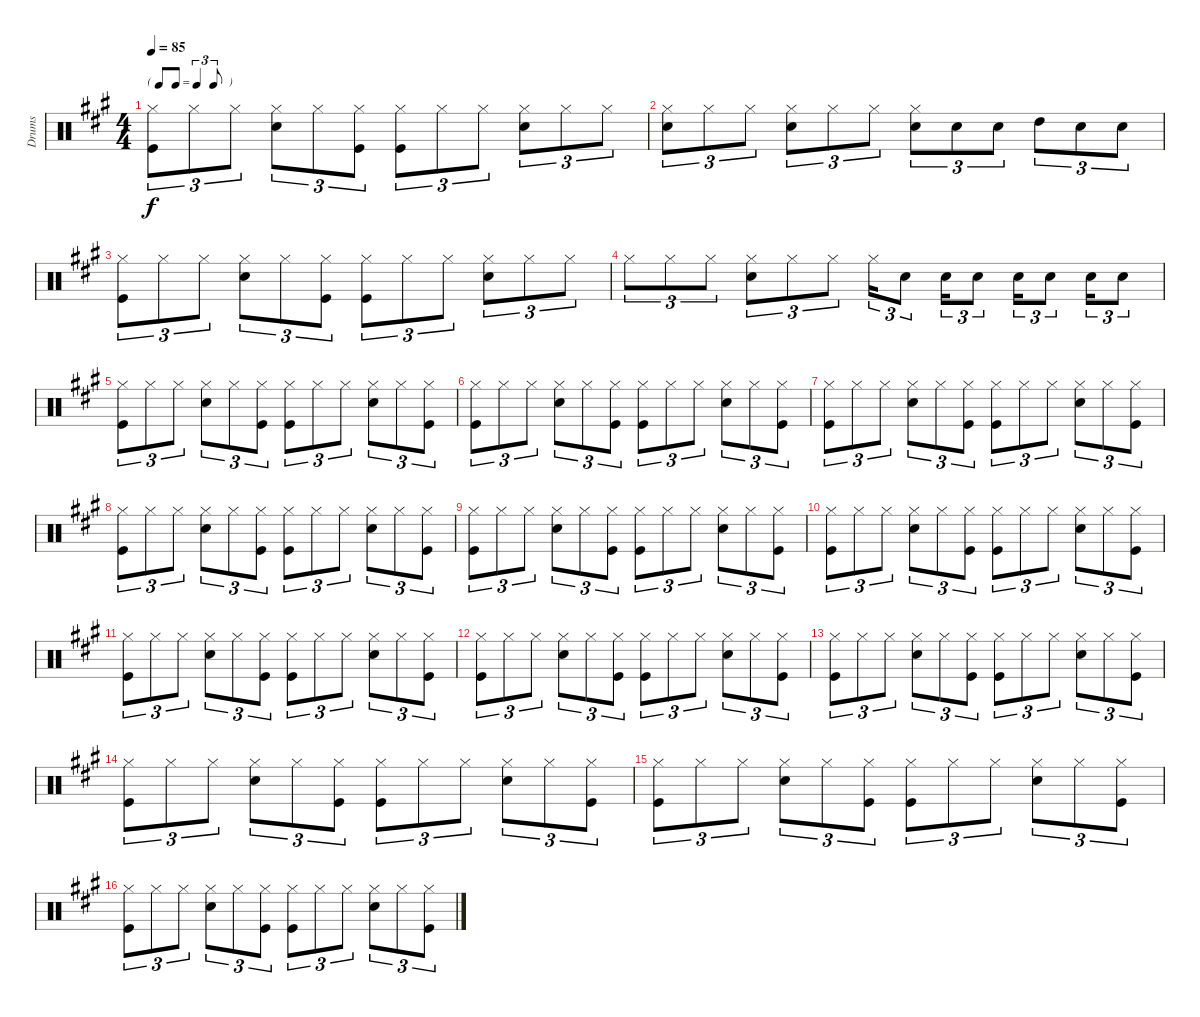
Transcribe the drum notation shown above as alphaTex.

\track ("Drums" "Drums") {instrument percussion}
\staff {score}
\articulation defaults
\ts (4 4)
\tf triplet8th
\tempo 85
\clef neutral
\ks a
("Hi-Hat (closed)" "Kick (hit)").8{tu (3 2) dy f} "Hi-Hat (closed)".8{tu (3 2)} "Hi-Hat (closed)".8{tu (3 2)} ("Hi-Hat (closed)" "Snare (hit) 2").8{tu (3 2)} "Hi-Hat (closed)".8{tu (3 2)} ("Hi-Hat (closed)" "Kick (hit)").8{tu (3 2)} ("Hi-Hat (closed)" "Kick (hit)").8{tu (3 2)} "Hi-Hat (closed)".8{tu (3 2)} "Hi-Hat (closed)".8{tu (3 2)} ("Hi-Hat (closed)" "Snare (hit) 2").8{tu (3 2)} "Hi-Hat (closed)".8{tu (3 2)} "Hi-Hat (closed)".8{tu (3 2)} |
("Hi-Hat (closed)" "Snare (hit) 2").8{tu (3 2)} "Hi-Hat (closed)".8{tu (3 2)} "Hi-Hat (closed)".8{tu (3 2)} ("Hi-Hat (closed)" "Snare (hit) 2").8{tu (3 2)} "Hi-Hat (closed)".8{tu (3 2)} "Hi-Hat (closed)".8{tu (3 2)} ("Hi-Hat (closed)" "Snare (hit) 2").8{tu (3 2)} "Snare (hit) 2".8{tu (3 2)} "Snare (hit) 2".8{tu (3 2)} "High Tom (hit)".8{tu (3 2)} "Snare (hit) 2".8{tu (3 2)} "Snare (hit) 2".8{tu (3 2)} |
("Hi-Hat (closed)" "Kick (hit)").8{tu (3 2)} "Hi-Hat (closed)".8{tu (3 2)} "Hi-Hat (closed)".8{tu (3 2)} ("Hi-Hat (closed)" "Snare (hit) 2").8{tu (3 2)} "Hi-Hat (closed)".8{tu (3 2)} ("Hi-Hat (closed)" "Kick (hit)").8{tu (3 2)} ("Hi-Hat (closed)" "Kick (hit)").8{tu (3 2)} "Hi-Hat (closed)".8{tu (3 2)} "Hi-Hat (closed)".8{tu (3 2)} ("Hi-Hat (closed)" "Snare (hit) 2").8{tu (3 2)} "Hi-Hat (closed)".8{tu (3 2)} "Hi-Hat (closed)".8{tu (3 2)} |
"Hi-Hat (closed)".8{tu (3 2)} "Hi-Hat (closed)".8{tu (3 2)} "Hi-Hat (closed)".8{tu (3 2)} ("Snare (hit) 2" "Hi-Hat (closed)").8{tu (3 2)} "Hi-Hat (closed)".8{tu (3 2)} "Hi-Hat (closed)".8{tu (3 2)} "Hi-Hat (closed)".16{tu (3 2)} "Snare (hit) 2".8{tu (3 2)} "Snare (hit) 2".16{tu (3 2)} "Snare (hit) 2".8{tu (3 2)} "Snare (hit) 2".16{tu (3 2)} "Snare (hit) 2".8{tu (3 2)} "Snare (hit) 2".16{tu (3 2)} "Snare (hit) 2".8{tu (3 2)} |
("Hi-Hat (closed)" "Kick (hit)").8{tu (3 2)} "Hi-Hat (closed)".8{tu (3 2)} "Hi-Hat (closed)".8{tu (3 2)} ("Hi-Hat (closed)" "Snare (hit) 2").8{tu (3 2)} "Hi-Hat (closed)".8{tu (3 2)} ("Hi-Hat (closed)" "Kick (hit)").8{tu (3 2)} ("Hi-Hat (closed)" "Kick (hit)").8{tu (3 2)} "Hi-Hat (closed)".8{tu (3 2)} "Hi-Hat (closed)".8{tu (3 2)} ("Hi-Hat (closed)" "Snare (hit) 2").8{tu (3 2)} "Hi-Hat (closed)".8{tu (3 2)} ("Hi-Hat (closed)" "Kick (hit)").8{tu (3 2)} |
("Hi-Hat (closed)" "Kick (hit)").8{tu (3 2)} "Hi-Hat (closed)".8{tu (3 2)} "Hi-Hat (closed)".8{tu (3 2)} ("Hi-Hat (closed)" "Snare (hit) 2").8{tu (3 2)} "Hi-Hat (closed)".8{tu (3 2)} ("Hi-Hat (closed)" "Kick (hit)").8{tu (3 2)} ("Hi-Hat (closed)" "Kick (hit)").8{tu (3 2)} "Hi-Hat (closed)".8{tu (3 2)} "Hi-Hat (closed)".8{tu (3 2)} ("Hi-Hat (closed)" "Snare (hit) 2").8{tu (3 2)} "Hi-Hat (closed)".8{tu (3 2)} ("Hi-Hat (closed)" "Kick (hit)").8{tu (3 2)} |
("Hi-Hat (closed)" "Kick (hit)").8{tu (3 2)} "Hi-Hat (closed)".8{tu (3 2)} "Hi-Hat (closed)".8{tu (3 2)} ("Hi-Hat (closed)" "Snare (hit) 2").8{tu (3 2)} "Hi-Hat (closed)".8{tu (3 2)} ("Hi-Hat (closed)" "Kick (hit)").8{tu (3 2)} ("Hi-Hat (closed)" "Kick (hit)").8{tu (3 2)} "Hi-Hat (closed)".8{tu (3 2)} "Hi-Hat (closed)".8{tu (3 2)} ("Hi-Hat (closed)" "Snare (hit) 2").8{tu (3 2)} "Hi-Hat (closed)".8{tu (3 2)} ("Hi-Hat (closed)" "Kick (hit)").8{tu (3 2)} |
("Hi-Hat (closed)" "Kick (hit)").8{tu (3 2)} "Hi-Hat (closed)".8{tu (3 2)} "Hi-Hat (closed)".8{tu (3 2)} ("Hi-Hat (closed)" "Snare (hit) 2").8{tu (3 2)} "Hi-Hat (closed)".8{tu (3 2)} ("Hi-Hat (closed)" "Kick (hit)").8{tu (3 2)} ("Hi-Hat (closed)" "Kick (hit)").8{tu (3 2)} "Hi-Hat (closed)".8{tu (3 2)} "Hi-Hat (closed)".8{tu (3 2)} ("Hi-Hat (closed)" "Snare (hit) 2").8{tu (3 2)} "Hi-Hat (closed)".8{tu (3 2)} ("Hi-Hat (closed)" "Kick (hit)").8{tu (3 2)} |
("Hi-Hat (closed)" "Kick (hit)").8{tu (3 2)} "Hi-Hat (closed)".8{tu (3 2)} "Hi-Hat (closed)".8{tu (3 2)} ("Hi-Hat (closed)" "Snare (hit) 2").8{tu (3 2)} "Hi-Hat (closed)".8{tu (3 2)} ("Hi-Hat (closed)" "Kick (hit)").8{tu (3 2)} ("Hi-Hat (closed)" "Kick (hit)").8{tu (3 2)} "Hi-Hat (closed)".8{tu (3 2)} "Hi-Hat (closed)".8{tu (3 2)} ("Hi-Hat (closed)" "Snare (hit) 2").8{tu (3 2)} "Hi-Hat (closed)".8{tu (3 2)} ("Hi-Hat (closed)" "Kick (hit)").8{tu (3 2)} |
("Hi-Hat (closed)" "Kick (hit)").8{tu (3 2)} "Hi-Hat (closed)".8{tu (3 2)} "Hi-Hat (closed)".8{tu (3 2)} ("Hi-Hat (closed)" "Snare (hit) 2").8{tu (3 2)} "Hi-Hat (closed)".8{tu (3 2)} ("Hi-Hat (closed)" "Kick (hit)").8{tu (3 2)} ("Hi-Hat (closed)" "Kick (hit)").8{tu (3 2)} "Hi-Hat (closed)".8{tu (3 2)} "Hi-Hat (closed)".8{tu (3 2)} ("Hi-Hat (closed)" "Snare (hit) 2").8{tu (3 2)} "Hi-Hat (closed)".8{tu (3 2)} ("Hi-Hat (closed)" "Kick (hit)").8{tu (3 2)} |
("Hi-Hat (closed)" "Kick (hit)").8{tu (3 2)} "Hi-Hat (closed)".8{tu (3 2)} "Hi-Hat (closed)".8{tu (3 2)} ("Hi-Hat (closed)" "Snare (hit) 2").8{tu (3 2)} "Hi-Hat (closed)".8{tu (3 2)} ("Hi-Hat (closed)" "Kick (hit)").8{tu (3 2)} ("Hi-Hat (closed)" "Kick (hit)").8{tu (3 2)} "Hi-Hat (closed)".8{tu (3 2)} "Hi-Hat (closed)".8{tu (3 2)} ("Hi-Hat (closed)" "Snare (hit) 2").8{tu (3 2)} "Hi-Hat (closed)".8{tu (3 2)} ("Hi-Hat (closed)" "Kick (hit)").8{tu (3 2)} |
("Hi-Hat (closed)" "Kick (hit)").8{tu (3 2)} "Hi-Hat (closed)".8{tu (3 2)} "Hi-Hat (closed)".8{tu (3 2)} ("Hi-Hat (closed)" "Snare (hit) 2").8{tu (3 2)} "Hi-Hat (closed)".8{tu (3 2)} ("Hi-Hat (closed)" "Kick (hit)").8{tu (3 2)} ("Hi-Hat (closed)" "Kick (hit)").8{tu (3 2)} "Hi-Hat (closed)".8{tu (3 2)} "Hi-Hat (closed)".8{tu (3 2)} ("Hi-Hat (closed)" "Snare (hit) 2").8{tu (3 2)} "Hi-Hat (closed)".8{tu (3 2)} ("Hi-Hat (closed)" "Kick (hit)").8{tu (3 2)} |
("Hi-Hat (closed)" "Kick (hit)").8{tu (3 2)} "Hi-Hat (closed)".8{tu (3 2)} "Hi-Hat (closed)".8{tu (3 2)} ("Hi-Hat (closed)" "Snare (hit) 2").8{tu (3 2)} "Hi-Hat (closed)".8{tu (3 2)} ("Hi-Hat (closed)" "Kick (hit)").8{tu (3 2)} ("Hi-Hat (closed)" "Kick (hit)").8{tu (3 2)} "Hi-Hat (closed)".8{tu (3 2)} "Hi-Hat (closed)".8{tu (3 2)} ("Hi-Hat (closed)" "Snare (hit) 2").8{tu (3 2)} "Hi-Hat (closed)".8{tu (3 2)} ("Hi-Hat (closed)" "Kick (hit)").8{tu (3 2)} |
("Hi-Hat (closed)" "Kick (hit)").8{tu (3 2)} "Hi-Hat (closed)".8{tu (3 2)} "Hi-Hat (closed)".8{tu (3 2)} ("Hi-Hat (closed)" "Snare (hit) 2").8{tu (3 2)} "Hi-Hat (closed)".8{tu (3 2)} ("Hi-Hat (closed)" "Kick (hit)").8{tu (3 2)} ("Hi-Hat (closed)" "Kick (hit)").8{tu (3 2)} "Hi-Hat (closed)".8{tu (3 2)} "Hi-Hat (closed)".8{tu (3 2)} ("Hi-Hat (closed)" "Snare (hit) 2").8{tu (3 2)} "Hi-Hat (closed)".8{tu (3 2)} ("Hi-Hat (closed)" "Kick (hit)").8{tu (3 2)} |
("Hi-Hat (closed)" "Kick (hit)").8{tu (3 2)} "Hi-Hat (closed)".8{tu (3 2)} "Hi-Hat (closed)".8{tu (3 2)} ("Hi-Hat (closed)" "Snare (hit) 2").8{tu (3 2)} "Hi-Hat (closed)".8{tu (3 2)} ("Hi-Hat (closed)" "Kick (hit)").8{tu (3 2)} ("Hi-Hat (closed)" "Kick (hit)").8{tu (3 2)} "Hi-Hat (closed)".8{tu (3 2)} "Hi-Hat (closed)".8{tu (3 2)} ("Hi-Hat (closed)" "Snare (hit) 2").8{tu (3 2)} "Hi-Hat (closed)".8{tu (3 2)} ("Hi-Hat (closed)" "Kick (hit)").8{tu (3 2)} |
("Hi-Hat (closed)" "Kick (hit)").8{tu (3 2)} "Hi-Hat (closed)".8{tu (3 2)} "Hi-Hat (closed)".8{tu (3 2)} ("Hi-Hat (closed)" "Snare (hit) 2").8{tu (3 2)} "Hi-Hat (closed)".8{tu (3 2)} ("Hi-Hat (closed)" "Kick (hit)").8{tu (3 2)} ("Hi-Hat (closed)" "Kick (hit)").8{tu (3 2)} "Hi-Hat (closed)".8{tu (3 2)} "Hi-Hat (closed)".8{tu (3 2)} ("Hi-Hat (closed)" "Snare (hit) 2").8{tu (3 2)} "Hi-Hat (closed)".8{tu (3 2)} ("Hi-Hat (closed)" "Kick (hit)").8{tu (3 2)}
